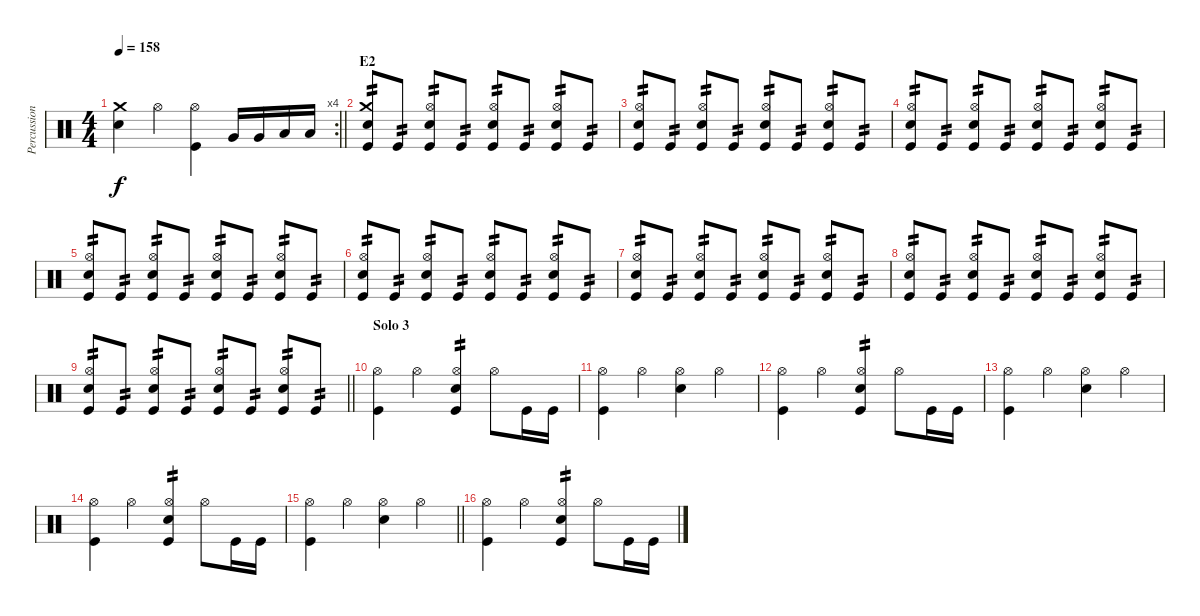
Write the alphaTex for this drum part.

\track ("Percussion" "Percussion") {instrument percussion}
\staff {score}
\articulation defaults
\rc 4
\ts (4 4)
\tempo 158
\clef neutral
\barLineRight lightlight
\ks c
("Snare (hit) 2" "Crash medium (hit)").4{dy f} "Hi-Hat (open)".4 ("Kick (hit)" "Hi-Hat (open)").4 "Very Low Tom (hit)".16 "Very Low Tom (hit)".16 "Low Floor Tom (hit)".16 "Low Floor Tom (hit)".16 |
\section ("" "E2")
("Kick (hit)" "Snare (hit) 2" "Crash medium (hit)").8{tp 2} "Kick (hit)".8{tp 2} ("Kick (hit)" "Snare (hit) 2" "Hi-Hat (open)").8{tp 2} "Kick (hit)".8{tp 2} ("Kick (hit)" "Snare (hit) 2" "Hi-Hat (open)").8{tp 2} "Kick (hit)".8{tp 2} ("Kick (hit)" "Snare (hit) 2" "Hi-Hat (open)").8{tp 2} "Kick (hit)".8{tp 2} |
("Kick (hit)" "Snare (hit) 2" "Hi-Hat (open)").8{tp 2} "Kick (hit)".8{tp 2} ("Kick (hit)" "Snare (hit) 2" "Hi-Hat (open)").8{tp 2} "Kick (hit)".8{tp 2} ("Kick (hit)" "Snare (hit) 2" "Hi-Hat (open)").8{tp 2} "Kick (hit)".8{tp 2} ("Kick (hit)" "Snare (hit) 2" "Hi-Hat (open)").8{tp 2} "Kick (hit)".8{tp 2} |
("Kick (hit)" "Snare (hit) 2" "Hi-Hat (open)").8{tp 2} "Kick (hit)".8{tp 2} ("Kick (hit)" "Snare (hit) 2" "Hi-Hat (open)").8{tp 2} "Kick (hit)".8{tp 2} ("Kick (hit)" "Snare (hit) 2" "Hi-Hat (open)").8{tp 2} "Kick (hit)".8{tp 2} ("Kick (hit)" "Snare (hit) 2" "Hi-Hat (open)").8{tp 2} "Kick (hit)".8{tp 2} |
("Kick (hit)" "Snare (hit) 2" "Hi-Hat (open)").8{tp 2} "Kick (hit)".8{tp 2} ("Kick (hit)" "Snare (hit) 2" "Hi-Hat (open)").8{tp 2} "Kick (hit)".8{tp 2} ("Kick (hit)" "Snare (hit) 2" "Hi-Hat (open)").8{tp 2} "Kick (hit)".8{tp 2} ("Kick (hit)" "Snare (hit) 2" "Hi-Hat (open)").8{tp 2} "Kick (hit)".8{tp 2} |
("Kick (hit)" "Snare (hit) 2" "Hi-Hat (open)").8{tp 2} "Kick (hit)".8{tp 2} ("Kick (hit)" "Snare (hit) 2" "Hi-Hat (open)").8{tp 2} "Kick (hit)".8{tp 2} ("Kick (hit)" "Snare (hit) 2" "Hi-Hat (open)").8{tp 2} "Kick (hit)".8{tp 2} ("Kick (hit)" "Snare (hit) 2" "Hi-Hat (open)").8{tp 2} "Kick (hit)".8{tp 2} |
("Kick (hit)" "Snare (hit) 2" "Hi-Hat (open)").8{tp 2} "Kick (hit)".8{tp 2} ("Kick (hit)" "Snare (hit) 2" "Hi-Hat (open)").8{tp 2} "Kick (hit)".8{tp 2} ("Kick (hit)" "Snare (hit) 2" "Hi-Hat (open)").8{tp 2} "Kick (hit)".8{tp 2} ("Kick (hit)" "Snare (hit) 2" "Hi-Hat (open)").8{tp 2} "Kick (hit)".8{tp 2} |
("Kick (hit)" "Snare (hit) 2" "Hi-Hat (open)").8{tp 2} "Kick (hit)".8{tp 2} ("Kick (hit)" "Snare (hit) 2" "Hi-Hat (open)").8{tp 2} "Kick (hit)".8{tp 2} ("Kick (hit)" "Snare (hit) 2" "Hi-Hat (open)").8{tp 2} "Kick (hit)".8{tp 2} ("Kick (hit)" "Snare (hit) 2" "Hi-Hat (open)").8{tp 2} "Kick (hit)".8{tp 2} |
\barLineRight lightlight
("Kick (hit)" "Snare (hit) 2" "Hi-Hat (open)").8{tp 2} "Kick (hit)".8{tp 2} ("Kick (hit)" "Snare (hit) 2" "Hi-Hat (open)").8{tp 2} "Kick (hit)".8{tp 2} ("Kick (hit)" "Snare (hit) 2" "Hi-Hat (open)").8{tp 2} "Kick (hit)".8{tp 2} ("Kick (hit)" "Snare (hit) 2" "Hi-Hat (open)").8{tp 2} "Kick (hit)".8{tp 2} |
\section ("" "Solo 3")
("Hi-Hat (open)" "Kick (hit)").4 "Hi-Hat (open)".4 ("Hi-Hat (open)" "Snare (hit) 2" "Kick (hit)").4{tp 2} "Hi-Hat (open)".8 "Kick (hit)".16 "Kick (hit)".16 |
("Hi-Hat (open)" "Kick (hit)").4 "Hi-Hat (open)".4 ("Hi-Hat (open)" "Snare (hit) 2").4 "Hi-Hat (open)".4 |
("Hi-Hat (open)" "Kick (hit)").4 "Hi-Hat (open)".4 ("Hi-Hat (open)" "Snare (hit) 2" "Kick (hit)").4{tp 2} "Hi-Hat (open)".8 "Kick (hit)".16 "Kick (hit)".16 |
("Hi-Hat (open)" "Kick (hit)").4 "Hi-Hat (open)".4 ("Hi-Hat (open)" "Snare (hit) 2").4 "Hi-Hat (open)".4 |
("Hi-Hat (open)" "Kick (hit)").4 "Hi-Hat (open)".4 ("Hi-Hat (open)" "Snare (hit) 2" "Kick (hit)").4{tp 2} "Hi-Hat (open)".8 "Kick (hit)".16 "Kick (hit)".16 |
\barLineRight lightlight
("Hi-Hat (open)" "Kick (hit)").4 "Hi-Hat (open)".4 ("Hi-Hat (open)" "Snare (hit) 2").4 "Hi-Hat (open)".4 |
("Hi-Hat (open)" "Kick (hit)").4 "Hi-Hat (open)".4 ("Hi-Hat (open)" "Snare (hit) 2" "Kick (hit)").4{tp 2} "Hi-Hat (open)".8 "Kick (hit)".16 "Kick (hit)".16
